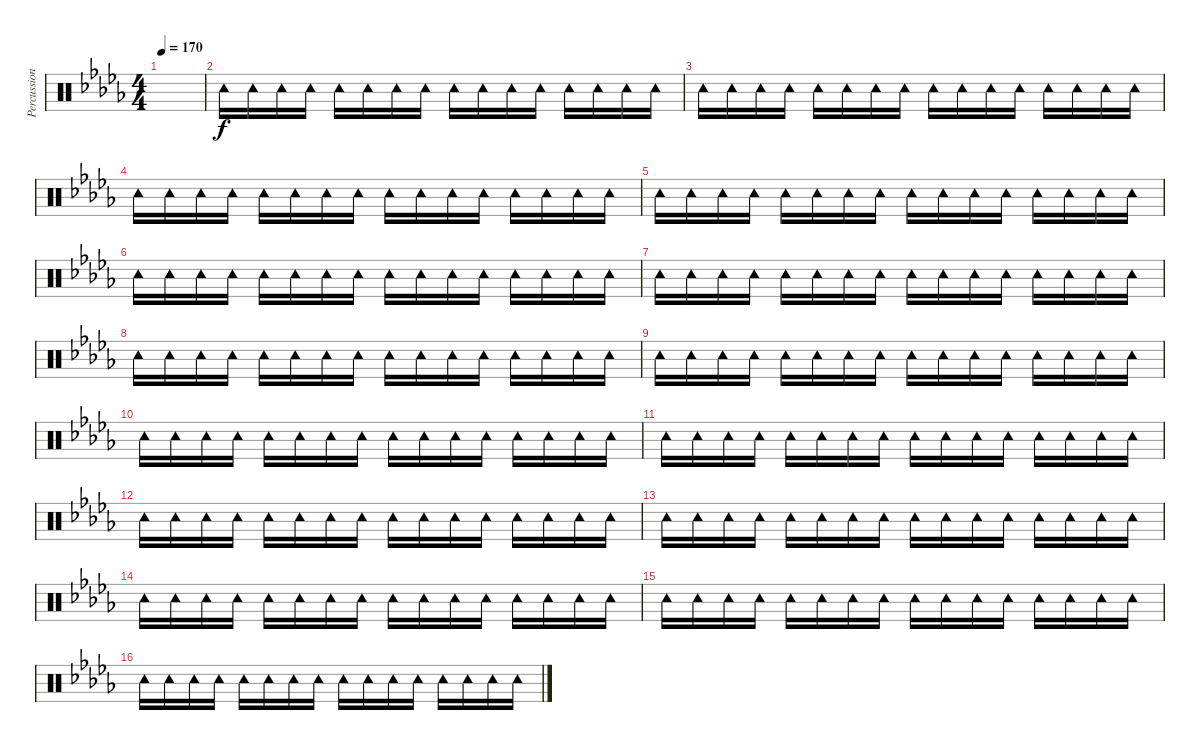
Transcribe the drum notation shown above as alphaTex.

\track ("Percussion" "Percussion") {instrument percussion}
\staff {score}
\articulation defaults
\ts (4 4)
\tempo 170
\clef neutral
\ks db
|
"Tambourine (hit)".16 "Tambourine (hit)".16 "Tambourine (hit)".16 "Tambourine (hit)".16 "Tambourine (hit)".16 "Tambourine (hit)".16 "Tambourine (hit)".16 "Tambourine (hit)".16 "Tambourine (hit)".16 "Tambourine (hit)".16 "Tambourine (hit)".16 "Tambourine (hit)".16 "Tambourine (hit)".16 "Tambourine (hit)".16 "Tambourine (hit)".16 "Tambourine (hit)".16 |
"Tambourine (hit)".16 "Tambourine (hit)".16 "Tambourine (hit)".16 "Tambourine (hit)".16 "Tambourine (hit)".16 "Tambourine (hit)".16 "Tambourine (hit)".16 "Tambourine (hit)".16 "Tambourine (hit)".16 "Tambourine (hit)".16 "Tambourine (hit)".16 "Tambourine (hit)".16 "Tambourine (hit)".16 "Tambourine (hit)".16 "Tambourine (hit)".16 "Tambourine (hit)".16 |
"Tambourine (hit)".16 "Tambourine (hit)".16 "Tambourine (hit)".16 "Tambourine (hit)".16 "Tambourine (hit)".16 "Tambourine (hit)".16 "Tambourine (hit)".16 "Tambourine (hit)".16 "Tambourine (hit)".16 "Tambourine (hit)".16 "Tambourine (hit)".16 "Tambourine (hit)".16 "Tambourine (hit)".16 "Tambourine (hit)".16 "Tambourine (hit)".16 "Tambourine (hit)".16 |
"Tambourine (hit)".16 "Tambourine (hit)".16 "Tambourine (hit)".16 "Tambourine (hit)".16 "Tambourine (hit)".16 "Tambourine (hit)".16 "Tambourine (hit)".16 "Tambourine (hit)".16 "Tambourine (hit)".16 "Tambourine (hit)".16 "Tambourine (hit)".16 "Tambourine (hit)".16 "Tambourine (hit)".16 "Tambourine (hit)".16 "Tambourine (hit)".16 "Tambourine (hit)".16 |
"Tambourine (hit)".16 "Tambourine (hit)".16 "Tambourine (hit)".16 "Tambourine (hit)".16 "Tambourine (hit)".16 "Tambourine (hit)".16 "Tambourine (hit)".16 "Tambourine (hit)".16 "Tambourine (hit)".16 "Tambourine (hit)".16 "Tambourine (hit)".16 "Tambourine (hit)".16 "Tambourine (hit)".16 "Tambourine (hit)".16 "Tambourine (hit)".16 "Tambourine (hit)".16 |
"Tambourine (hit)".16 "Tambourine (hit)".16 "Tambourine (hit)".16 "Tambourine (hit)".16 "Tambourine (hit)".16 "Tambourine (hit)".16 "Tambourine (hit)".16 "Tambourine (hit)".16 "Tambourine (hit)".16 "Tambourine (hit)".16 "Tambourine (hit)".16 "Tambourine (hit)".16 "Tambourine (hit)".16 "Tambourine (hit)".16 "Tambourine (hit)".16 "Tambourine (hit)".16 |
"Tambourine (hit)".16 "Tambourine (hit)".16 "Tambourine (hit)".16 "Tambourine (hit)".16 "Tambourine (hit)".16 "Tambourine (hit)".16 "Tambourine (hit)".16 "Tambourine (hit)".16 "Tambourine (hit)".16 "Tambourine (hit)".16 "Tambourine (hit)".16 "Tambourine (hit)".16 "Tambourine (hit)".16 "Tambourine (hit)".16 "Tambourine (hit)".16 "Tambourine (hit)".16 |
"Tambourine (hit)".16 "Tambourine (hit)".16 "Tambourine (hit)".16 "Tambourine (hit)".16 "Tambourine (hit)".16 "Tambourine (hit)".16 "Tambourine (hit)".16 "Tambourine (hit)".16 "Tambourine (hit)".16 "Tambourine (hit)".16 "Tambourine (hit)".16 "Tambourine (hit)".16 "Tambourine (hit)".16 "Tambourine (hit)".16 "Tambourine (hit)".16 "Tambourine (hit)".16 |
"Tambourine (hit)".16 "Tambourine (hit)".16 "Tambourine (hit)".16 "Tambourine (hit)".16 "Tambourine (hit)".16 "Tambourine (hit)".16 "Tambourine (hit)".16 "Tambourine (hit)".16 "Tambourine (hit)".16 "Tambourine (hit)".16 "Tambourine (hit)".16 "Tambourine (hit)".16 "Tambourine (hit)".16 "Tambourine (hit)".16 "Tambourine (hit)".16 "Tambourine (hit)".16 |
"Tambourine (hit)".16 "Tambourine (hit)".16 "Tambourine (hit)".16 "Tambourine (hit)".16 "Tambourine (hit)".16 "Tambourine (hit)".16 "Tambourine (hit)".16 "Tambourine (hit)".16 "Tambourine (hit)".16 "Tambourine (hit)".16 "Tambourine (hit)".16 "Tambourine (hit)".16 "Tambourine (hit)".16 "Tambourine (hit)".16 "Tambourine (hit)".16 "Tambourine (hit)".16 |
"Tambourine (hit)".16 "Tambourine (hit)".16 "Tambourine (hit)".16 "Tambourine (hit)".16 "Tambourine (hit)".16 "Tambourine (hit)".16 "Tambourine (hit)".16 "Tambourine (hit)".16 "Tambourine (hit)".16 "Tambourine (hit)".16 "Tambourine (hit)".16 "Tambourine (hit)".16 "Tambourine (hit)".16 "Tambourine (hit)".16 "Tambourine (hit)".16 "Tambourine (hit)".16 |
"Tambourine (hit)".16 "Tambourine (hit)".16 "Tambourine (hit)".16 "Tambourine (hit)".16 "Tambourine (hit)".16 "Tambourine (hit)".16 "Tambourine (hit)".16 "Tambourine (hit)".16 "Tambourine (hit)".16 "Tambourine (hit)".16 "Tambourine (hit)".16 "Tambourine (hit)".16 "Tambourine (hit)".16 "Tambourine (hit)".16 "Tambourine (hit)".16 "Tambourine (hit)".16 |
"Tambourine (hit)".16 "Tambourine (hit)".16 "Tambourine (hit)".16 "Tambourine (hit)".16 "Tambourine (hit)".16 "Tambourine (hit)".16 "Tambourine (hit)".16 "Tambourine (hit)".16 "Tambourine (hit)".16 "Tambourine (hit)".16 "Tambourine (hit)".16 "Tambourine (hit)".16 "Tambourine (hit)".16 "Tambourine (hit)".16 "Tambourine (hit)".16 "Tambourine (hit)".16 |
"Tambourine (hit)".16 "Tambourine (hit)".16 "Tambourine (hit)".16 "Tambourine (hit)".16 "Tambourine (hit)".16 "Tambourine (hit)".16 "Tambourine (hit)".16 "Tambourine (hit)".16 "Tambourine (hit)".16 "Tambourine (hit)".16 "Tambourine (hit)".16 "Tambourine (hit)".16 "Tambourine (hit)".16 "Tambourine (hit)".16 "Tambourine (hit)".16 "Tambourine (hit)".16 |
"Tambourine (hit)".16 "Tambourine (hit)".16 "Tambourine (hit)".16 "Tambourine (hit)".16 "Tambourine (hit)".16 "Tambourine (hit)".16 "Tambourine (hit)".16 "Tambourine (hit)".16 "Tambourine (hit)".16 "Tambourine (hit)".16 "Tambourine (hit)".16 "Tambourine (hit)".16 "Tambourine (hit)".16 "Tambourine (hit)".16 "Tambourine (hit)".16 "Tambourine (hit)".16
